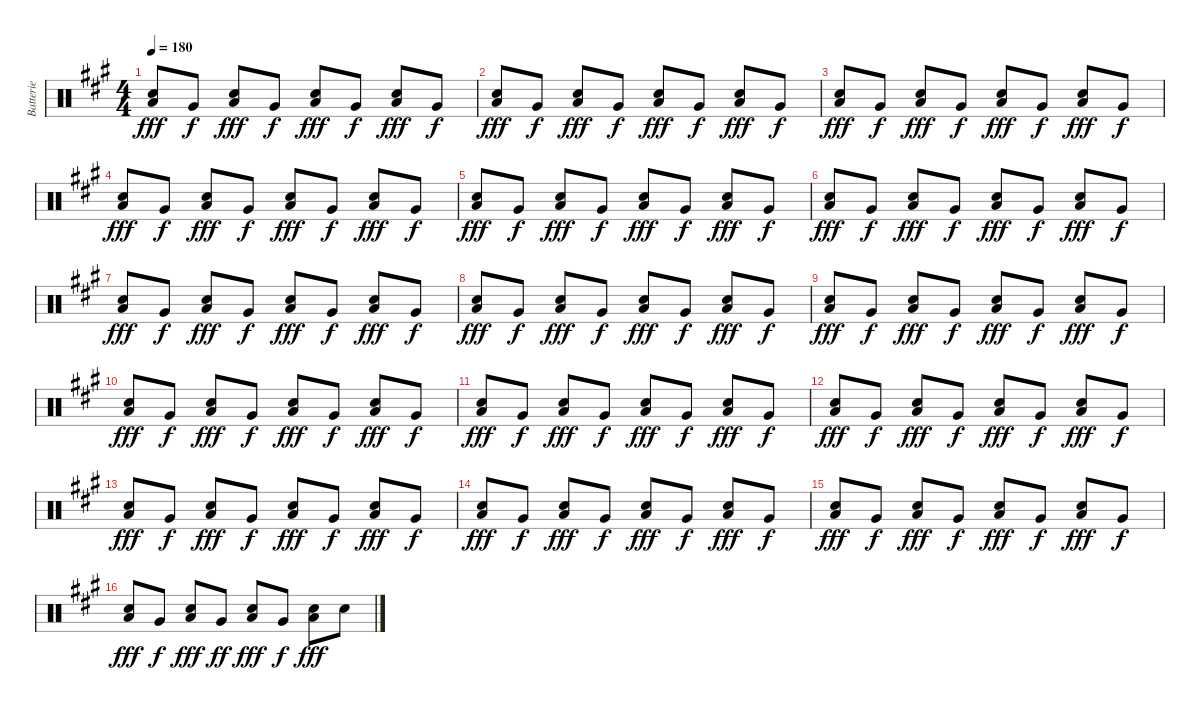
\track ("Batterie" "Batterie") {instrument percussion}
\staff {score}
\articulation defaults
\ts (4 4)
\tempo 180
\clef neutral
\ks a
("Electric Snare (hit)" "Low Floor Tom (hit)").8{dy fff} "Very Low Tom (hit)".8{dy f} ("Electric Snare (hit)" "Low Floor Tom (hit)").8{dy fff} "Very Low Tom (hit)".8{dy f} ("Electric Snare (hit)" "Low Floor Tom (hit)").8{dy fff} "Very Low Tom (hit)".8{dy f} ("Electric Snare (hit)" "Low Floor Tom (hit)").8{dy fff} "Very Low Tom (hit)".8{dy f} |
("Electric Snare (hit)" "Low Floor Tom (hit)").8{dy fff} "Very Low Tom (hit)".8{dy f} ("Electric Snare (hit)" "Low Floor Tom (hit)").8{dy fff} "Very Low Tom (hit)".8{dy f} ("Electric Snare (hit)" "Low Floor Tom (hit)").8{dy fff} "Very Low Tom (hit)".8{dy f} ("Electric Snare (hit)" "Low Floor Tom (hit)").8{dy fff} "Very Low Tom (hit)".8{dy f} |
("Electric Snare (hit)" "Low Floor Tom (hit)").8{dy fff} "Very Low Tom (hit)".8{dy f} ("Electric Snare (hit)" "Low Floor Tom (hit)").8{dy fff} "Very Low Tom (hit)".8{dy f} ("Electric Snare (hit)" "Low Floor Tom (hit)").8{dy fff} "Very Low Tom (hit)".8{dy f} ("Electric Snare (hit)" "Low Floor Tom (hit)").8{dy fff} "Very Low Tom (hit)".8{dy f} |
("Electric Snare (hit)" "Low Floor Tom (hit)").8{dy fff} "Very Low Tom (hit)".8{dy f} ("Electric Snare (hit)" "Low Floor Tom (hit)").8{dy fff} "Very Low Tom (hit)".8{dy f} ("Electric Snare (hit)" "Low Floor Tom (hit)").8{dy fff} "Very Low Tom (hit)".8{dy f} ("Electric Snare (hit)" "Low Floor Tom (hit)").8{dy fff} "Very Low Tom (hit)".8{dy f} |
("Electric Snare (hit)" "Low Floor Tom (hit)").8{dy fff} "Very Low Tom (hit)".8{dy f} ("Electric Snare (hit)" "Low Floor Tom (hit)").8{dy fff} "Very Low Tom (hit)".8{dy f} ("Electric Snare (hit)" "Low Floor Tom (hit)").8{dy fff} "Very Low Tom (hit)".8{dy f} ("Electric Snare (hit)" "Low Floor Tom (hit)").8{dy fff} "Very Low Tom (hit)".8{dy f} |
("Electric Snare (hit)" "Low Floor Tom (hit)").8{dy fff} "Very Low Tom (hit)".8{dy f} ("Electric Snare (hit)" "Low Floor Tom (hit)").8{dy fff} "Very Low Tom (hit)".8{dy f} ("Electric Snare (hit)" "Low Floor Tom (hit)").8{dy fff} "Very Low Tom (hit)".8{dy f} ("Electric Snare (hit)" "Low Floor Tom (hit)").8{dy fff} "Very Low Tom (hit)".8{dy f} |
("Electric Snare (hit)" "Low Floor Tom (hit)").8{dy fff} "Very Low Tom (hit)".8{dy f} ("Electric Snare (hit)" "Low Floor Tom (hit)").8{dy fff} "Very Low Tom (hit)".8{dy f} ("Electric Snare (hit)" "Low Floor Tom (hit)").8{dy fff} "Very Low Tom (hit)".8{dy f} ("Electric Snare (hit)" "Low Floor Tom (hit)").8{dy fff} "Very Low Tom (hit)".8{dy f} |
("Electric Snare (hit)" "Low Floor Tom (hit)").8{dy fff} "Very Low Tom (hit)".8{dy f} ("Electric Snare (hit)" "Low Floor Tom (hit)").8{dy fff} "Very Low Tom (hit)".8{dy f} ("Electric Snare (hit)" "Low Floor Tom (hit)").8{dy fff} "Very Low Tom (hit)".8{dy f} ("Electric Snare (hit)" "Low Floor Tom (hit)").8{dy fff} "Very Low Tom (hit)".8{dy f} |
("Electric Snare (hit)" "Low Floor Tom (hit)").8{dy fff} "Very Low Tom (hit)".8{dy f} ("Electric Snare (hit)" "Low Floor Tom (hit)").8{dy fff} "Very Low Tom (hit)".8{dy f} ("Electric Snare (hit)" "Low Floor Tom (hit)").8{dy fff} "Very Low Tom (hit)".8{dy f} ("Electric Snare (hit)" "Low Floor Tom (hit)").8{dy fff} "Very Low Tom (hit)".8{dy f} |
("Electric Snare (hit)" "Low Floor Tom (hit)").8{dy fff} "Very Low Tom (hit)".8{dy f} ("Electric Snare (hit)" "Low Floor Tom (hit)").8{dy fff} "Very Low Tom (hit)".8{dy f} ("Electric Snare (hit)" "Low Floor Tom (hit)").8{dy fff} "Very Low Tom (hit)".8{dy f} ("Electric Snare (hit)" "Low Floor Tom (hit)").8{dy fff} "Very Low Tom (hit)".8{dy f} |
("Electric Snare (hit)" "Low Floor Tom (hit)").8{dy fff} "Very Low Tom (hit)".8{dy f} ("Electric Snare (hit)" "Low Floor Tom (hit)").8{dy fff} "Very Low Tom (hit)".8{dy f} ("Electric Snare (hit)" "Low Floor Tom (hit)").8{dy fff} "Very Low Tom (hit)".8{dy f} ("Electric Snare (hit)" "Low Floor Tom (hit)").8{dy fff} "Very Low Tom (hit)".8{dy f} |
("Electric Snare (hit)" "Low Floor Tom (hit)").8{dy fff} "Very Low Tom (hit)".8{dy f} ("Electric Snare (hit)" "Low Floor Tom (hit)").8{dy fff} "Very Low Tom (hit)".8{dy f} ("Electric Snare (hit)" "Low Floor Tom (hit)").8{dy fff} "Very Low Tom (hit)".8{dy f} ("Electric Snare (hit)" "Low Floor Tom (hit)").8{dy fff} "Very Low Tom (hit)".8{dy f} |
("Electric Snare (hit)" "Low Floor Tom (hit)").8{dy fff} "Very Low Tom (hit)".8{dy f} ("Electric Snare (hit)" "Low Floor Tom (hit)").8{dy fff} "Very Low Tom (hit)".8{dy f} ("Electric Snare (hit)" "Low Floor Tom (hit)").8{dy fff} "Very Low Tom (hit)".8{dy f} ("Electric Snare (hit)" "Low Floor Tom (hit)").8{dy fff} "Very Low Tom (hit)".8{dy f} |
("Electric Snare (hit)" "Low Floor Tom (hit)").8{dy fff} "Very Low Tom (hit)".8{dy f} ("Electric Snare (hit)" "Low Floor Tom (hit)").8{dy fff} "Very Low Tom (hit)".8{dy f} ("Electric Snare (hit)" "Low Floor Tom (hit)").8{dy fff} "Very Low Tom (hit)".8{dy f} ("Electric Snare (hit)" "Low Floor Tom (hit)").8{dy fff} "Very Low Tom (hit)".8{dy f} |
("Electric Snare (hit)" "Low Floor Tom (hit)").8{dy fff} "Very Low Tom (hit)".8{dy f} ("Electric Snare (hit)" "Low Floor Tom (hit)").8{dy fff} "Very Low Tom (hit)".8{dy f} ("Electric Snare (hit)" "Low Floor Tom (hit)").8{dy fff} "Very Low Tom (hit)".8{dy f} ("Electric Snare (hit)" "Low Floor Tom (hit)").8{dy fff} "Very Low Tom (hit)".8{dy f} |
("Electric Snare (hit)" "Low Floor Tom (hit)").8{dy fff} "Very Low Tom (hit)".8{dy f} ("Electric Snare (hit)" "Low Floor Tom (hit)").8{dy fff} "Very Low Tom (hit)".8{dy ff} ("Electric Snare (hit)" "Low Floor Tom (hit)").8{dy fff} "Very Low Tom (hit)".8{dy f} ("Electric Snare (hit)" "Low Floor Tom (hit)").8{dy fff} "Electric Snare (hit)".8
